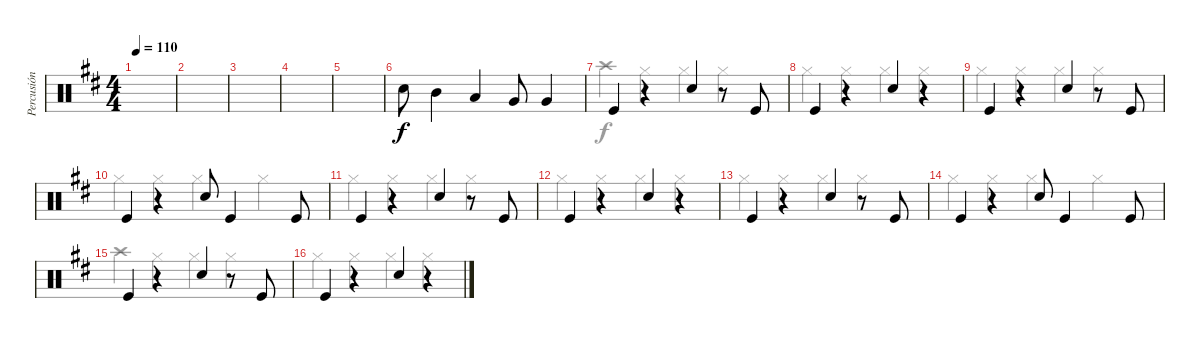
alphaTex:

\track ("Percusión" "Percusión") {instrument percussion}
\staff {score}
\articulation defaults
\voice
\ts (4 4)
\tempo 110
\clef neutral
\ks bminor
|
|
|
|
|
"Snare (hit) 2".8 "Mid Tom (hit)".4 "Low Tom (hit)".4 "Very Low Tom (hit)".8 "Very Low Tom (hit)".4 |
"Kick (hit)".4 r.4 "Snare (hit) 2".4 r.8 "Kick (hit)".8 |
"Kick (hit)".4 r.4 "Snare (hit) 2".4 r.4 |
"Kick (hit)".4 r.4 "Snare (hit) 2".4 r.8 "Kick (hit)".8 |
"Kick (hit)".4 r.4 "Snare (hit) 2".8 "Kick (hit)".4 "Kick (hit)".8 |
"Kick (hit)".4 r.4 "Snare (hit) 2".4 r.8 "Kick (hit)".8 |
"Kick (hit)".4 r.4 "Snare (hit) 2".4 r.4 |
"Kick (hit)".4 r.4 "Snare (hit) 2".4 r.8 "Kick (hit)".8 |
"Kick (hit)".4 r.4 "Snare (hit) 2".8 "Kick (hit)".4 "Kick (hit)".8 |
"Kick (hit)".4 r.4 "Snare (hit) 2".4 r.8 "Kick (hit)".8 |
"Kick (hit)".4 r.4 "Snare (hit) 2".4 r.4
\voice
\clef neutral
\ottava regular
\simile none
\ks bminor
|
|
|
|
|
|
"Crash high (hit)".4{dy f} "Hi-Hat (closed)".4 "Hi-Hat (closed)".4 "Hi-Hat (closed)".4 |
"Hi-Hat (closed)".4 "Hi-Hat (closed)".4 "Hi-Hat (closed)".4 "Hi-Hat (closed)".4 |
"Hi-Hat (closed)".4 "Hi-Hat (closed)".4 "Hi-Hat (closed)".4 "Hi-Hat (closed)".4 |
"Hi-Hat (closed)".4 "Hi-Hat (closed)".4 "Hi-Hat (closed)".4 "Hi-Hat (closed)".4 |
"Hi-Hat (closed)".4 "Hi-Hat (closed)".4 "Hi-Hat (closed)".4 "Hi-Hat (closed)".4 |
"Hi-Hat (closed)".4 "Hi-Hat (closed)".4 "Hi-Hat (closed)".4 "Hi-Hat (closed)".4 |
"Hi-Hat (closed)".4 "Hi-Hat (closed)".4 "Hi-Hat (closed)".4 "Hi-Hat (closed)".4 |
"Hi-Hat (closed)".4 "Hi-Hat (closed)".4 "Hi-Hat (closed)".4 "Hi-Hat (closed)".4 |
"Crash high (hit)".4 "Hi-Hat (closed)".4 "Hi-Hat (closed)".4 "Hi-Hat (closed)".4 |
"Hi-Hat (closed)".4 "Hi-Hat (closed)".4 "Hi-Hat (closed)".4 "Hi-Hat (closed)".4
